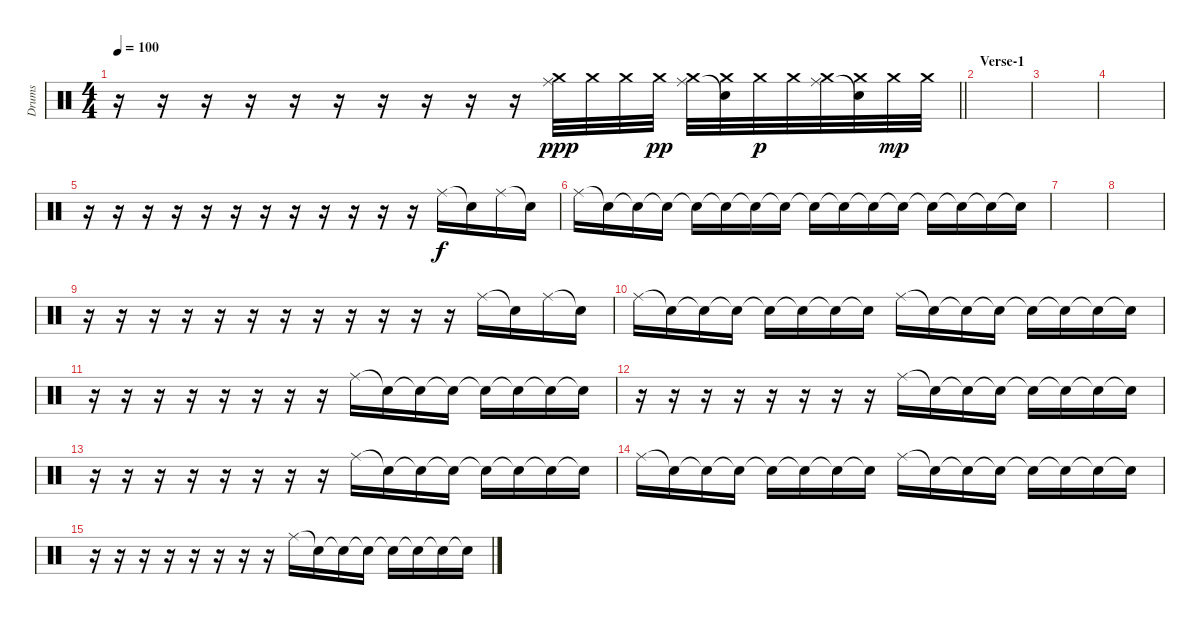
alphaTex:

\track ("Drums" "Drums") {instrument percussion}
\staff {score}
\articulation defaults
\ts (4 4)
\tempo 100
\clef neutral
\barLineRight lightlight
\ks c
r.16{dy f} r.16 r.16 r.16 r.16 r.16 r.16 r.16 r.16 r.16 ("Crash medium (hit)" "Ride (middle)").32{dy ppp} "Crash medium (hit)".32 "Crash medium (hit)".32 "Crash medium (hit)".32{dy pp} ("Crash medium (hit)" "Ride (middle)").32 ("Crash medium (hit)" "Snare (hit)"{t}).32 "Crash medium (hit)".32{dy p} "Crash medium (hit)".32 ("Crash medium (hit)" "Ride (middle)").32 ("Crash medium (hit)" "Snare (hit)"{t}).32 "Crash medium (hit)".32{dy mp} "Crash medium (hit)".32 |
\section ("" "Verse-1")
|
|
|
r.16 r.16 r.16 r.16 r.16 r.16 r.16 r.16 r.16 r.16 r.16 r.16 "Ride (middle)".16{dy f} "Snare (hit)"{t}.16 "Ride (middle)".16 "Snare (hit)"{t}.16 |
"Ride (middle)".16 "Snare (hit)"{t}.16 "Snare (hit)"{t}.16 "Snare (hit)"{t}.16 "Snare (hit)"{t}.16 "Snare (hit)"{t}.16 "Snare (hit)"{t}.16 "Snare (hit)"{t}.16 "Snare (hit)"{t}.16 "Snare (hit)"{t}.16 "Snare (hit)"{t}.16 "Snare (hit)"{t}.16 "Snare (hit)"{t}.16 "Snare (hit)"{t}.16 "Snare (hit)"{t}.16 "Snare (hit)"{t}.16 |
|
|
r.16 r.16 r.16 r.16 r.16 r.16 r.16 r.16 r.16 r.16 r.16 r.16 "Ride (middle)".16 "Snare (hit)"{t}.16 "Ride (middle)".16 "Snare (hit)"{t}.16 |
"Ride (middle)".16 "Snare (hit)"{t}.16 "Snare (hit)"{t}.16 "Snare (hit)"{t}.16 "Snare (hit)"{t}.16 "Snare (hit)"{t}.16 "Snare (hit)"{t}.16 "Snare (hit)"{t}.16 "Ride (middle)".16 "Snare (hit)"{t}.16 "Snare (hit)"{t}.16 "Snare (hit)"{t}.16 "Snare (hit)"{t}.16 "Snare (hit)"{t}.16 "Snare (hit)"{t}.16 "Snare (hit)"{t}.16 |
r.16 r.16 r.16 r.16 r.16 r.16 r.16 r.16 "Ride (middle)".16 "Snare (hit)"{t}.16 "Snare (hit)"{t}.16 "Snare (hit)"{t}.16 "Snare (hit)"{t}.16 "Snare (hit)"{t}.16 "Snare (hit)"{t}.16 "Snare (hit)"{t}.16 |
r.16 r.16 r.16 r.16 r.16 r.16 r.16 r.16 "Ride (middle)".16 "Snare (hit)"{t}.16 "Snare (hit)"{t}.16 "Snare (hit)"{t}.16 "Snare (hit)"{t}.16 "Snare (hit)"{t}.16 "Snare (hit)"{t}.16 "Snare (hit)"{t}.16 |
r.16 r.16 r.16 r.16 r.16 r.16 r.16 r.16 "Ride (middle)".16 "Snare (hit)"{t}.16 "Snare (hit)"{t}.16 "Snare (hit)"{t}.16 "Snare (hit)"{t}.16 "Snare (hit)"{t}.16 "Snare (hit)"{t}.16 "Snare (hit)"{t}.16 |
"Ride (middle)".16 "Snare (hit)"{t}.16 "Snare (hit)"{t}.16 "Snare (hit)"{t}.16 "Snare (hit)"{t}.16 "Snare (hit)"{t}.16 "Snare (hit)"{t}.16 "Snare (hit)"{t}.16 "Ride (middle)".16 "Snare (hit)"{t}.16 "Snare (hit)"{t}.16 "Snare (hit)"{t}.16 "Snare (hit)"{t}.16 "Snare (hit)"{t}.16 "Snare (hit)"{t}.16 "Snare (hit)"{t}.16 |
r.16 r.16 r.16 r.16 r.16 r.16 r.16 r.16 "Ride (middle)".16 "Snare (hit)"{t}.16 "Snare (hit)"{t}.16 "Snare (hit)"{t}.16 "Snare (hit)"{t}.16 "Snare (hit)"{t}.16 "Snare (hit)"{t}.16 "Snare (hit)"{t}.16
